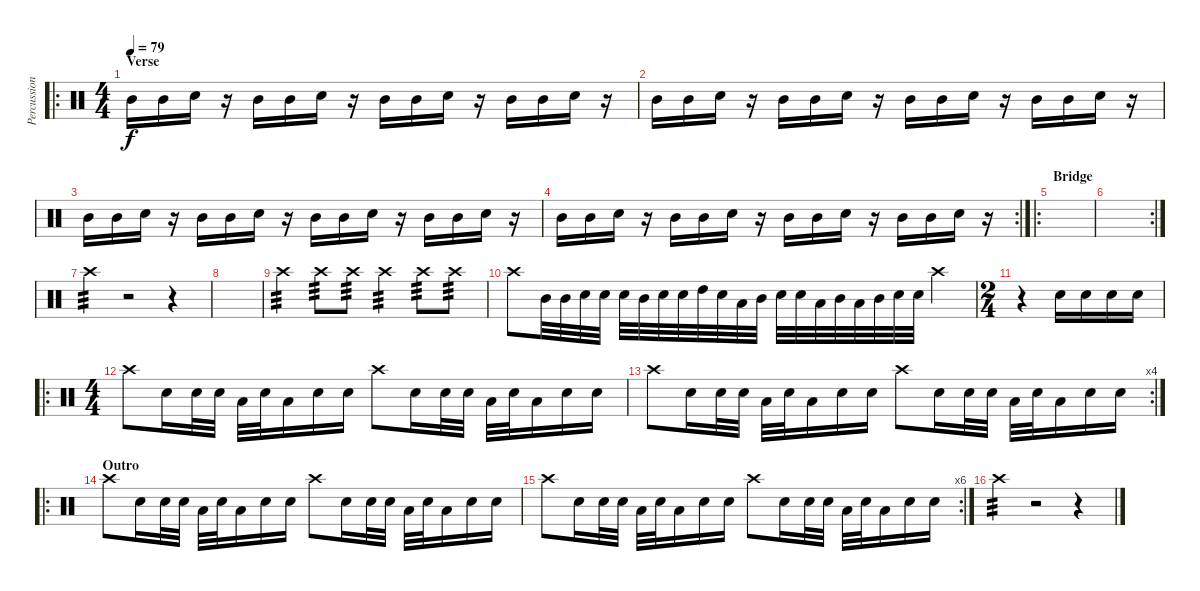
\track ("Percussion" "Percussion") {instrument percussion}
\staff {score}
\articulation defaults
\ro
\ts (4 4)
\section ("" "Verse")
\tempo 79
\clef neutral
\ks c "Mid Tom (hit)".16{dy f} "Mid Tom (hit)".16 "Snare (hit) 2".16
r.16 "Mid Tom (hit)".16 "Mid Tom (hit)".16 "Snare (hit) 2".16 r.16 "Mid Tom (hit)".16 "Mid Tom (hit)".16 "Snare (hit) 2".16 r.16 "Mid Tom (hit)".16 "Mid Tom (hit)".16 "Snare (hit) 2".16 r.16 |
"Mid Tom (hit)".16 "Mid Tom (hit)".16 "Snare (hit) 2".16 r.16 "Mid Tom (hit)".16 "Mid Tom (hit)".16 "Snare (hit) 2".16 r.16 "Mid Tom (hit)".16 "Mid Tom (hit)".16 "Snare (hit) 2".16 r.16 "Mid Tom (hit)".16 "Mid Tom (hit)".16 "Snare (hit) 2".16 r.16 |
"Mid Tom (hit)".16 "Mid Tom (hit)".16 "Snare (hit) 2".16 r.16 "Mid Tom (hit)".16 "Mid Tom (hit)".16 "Snare (hit) 2".16 r.16 "Mid Tom (hit)".16 "Mid Tom (hit)".16 "Snare (hit) 2".16 r.16 "Mid Tom (hit)".16 "Mid Tom (hit)".16 "Snare (hit) 2".16 r.16 |
\rc 2 "Mid Tom (hit)".16 "Mid Tom (hit)".16 "Snare (hit) 2".16
r.16 "Mid Tom (hit)".16 "Mid Tom (hit)".16 "Snare (hit) 2".16 r.16 "Mid Tom (hit)".16 "Mid Tom (hit)".16 "Snare (hit) 2".16 r.16 "Mid Tom (hit)".16 "Mid Tom (hit)".16 "Snare (hit) 2".16 r.16 |
\ro
\section ("" "Bridge")
|
\rc 2
|
"Crash high (hit)".4{tp 3} r.2 r.4 |
|
"Crash high (hit)".4{tp 3} "Crash high (hit)".8{tp 3} "Crash high (hit)".8{tp 3} "Crash high (hit)".4{tp 3} "Crash high (hit)".8{tp 3} "Crash high (hit)".8{tp 3} |
"Crash high (hit)".8 "Mid Tom (hit)".32 "Mid Tom (hit)".32 "Electric Snare (hit)".32 "Snare (hit) 2".32 "Electric Snare (hit)".32 "Mid Tom (hit)".32 "Snare (hit) 2".32 "Electric Snare (hit)".32 "High Tom (hit)".32 "Snare (hit) 2".32 "Low Tom (hit)".32 "Mid Tom (hit)".32 "Snare (hit) 2".32 "Electric Snare (hit)".32 "Low Floor Tom (hit)".32 "Mid Tom (hit)".32 "Low Tom (hit)".32 "Mid Tom (hit)".32 "Snare (hit) 2".32 "Electric Snare (hit)".32 "Crash high (hit)".4 |
\ts (2 4)
r.4 "Snare (hit) 2".16 "Snare (hit) 2".16 "Snare (hit) 2".16 "Snare (hit) 2".16 |
\ro
\ts (4 4)
"Crash high (hit)".8 "Snare (hit) 2".16 "Snare (hit) 2".32 "Snare (hit) 2".32 "Low Floor Tom (hit)".32 "Snare (hit) 2".32 "Low Floor Tom (hit)".16 "Snare (hit) 2".16 "Electric Snare (hit)".16 "Crash high (hit)".8 "Snare (hit) 2".16 "Snare (hit) 2".32 "Snare (hit) 2".32 "Low Floor Tom (hit)".32 "Snare (hit) 2".32 "Low Floor Tom (hit)".16 "Snare (hit) 2".16 "Electric Snare (hit)".16 |
\rc 4 "Crash high (hit)".8 "Snare (hit) 2".16 "Snare (hit) 2".32 "Snare (hit) 2".32 "Low Floor Tom (hit)".32 "Snare (hit) 2".32 "Low Floor Tom (hit)".16 "Snare (hit) 2".16 "Electric Snare (hit)".16 "Crash high (hit)".8 "Snare (hit) 2".16 "Snare (hit) 2".32 "Snare (hit) 2".32 "Low Floor Tom (hit)".32 "Snare (hit) 2".32 "Low Floor Tom (hit)".16 "Snare (hit) 2".16 "Electric Snare (hit)".16
|
\ro
\section ("" "Outro")
"Crash high (hit)".8 "Snare (hit) 2".16 "Snare (hit) 2".32 "Snare (hit) 2".32 "Low Floor Tom (hit)".32 "Snare (hit) 2".32 "Low Floor Tom (hit)".16 "Snare (hit) 2".16 "Electric Snare (hit)".16 "Crash high (hit)".8 "Snare (hit) 2".16 "Snare (hit) 2".32 "Snare (hit) 2".32 "Low Floor Tom (hit)".32 "Snare (hit) 2".32 "Low Floor Tom (hit)".16 "Snare (hit) 2".16 "Electric Snare (hit)".16 |
\rc 6 "Crash high (hit)".8 "Snare (hit) 2".16 "Snare (hit) 2".32 "Snare (hit) 2".32 "Low Floor Tom (hit)".32 "Snare (hit) 2".32 "Low Floor Tom (hit)".16 "Snare (hit) 2".16 "Electric Snare (hit)".16 "Crash high (hit)".8 "Snare (hit) 2".16 "Snare (hit) 2".32 "Snare (hit) 2".32 "Low Floor Tom (hit)".32 "Snare (hit) 2".32 "Low Floor Tom (hit)".16 "Snare (hit) 2".16 "Electric Snare (hit)".16
|
"Crash high (hit)".4{tp 3} r.2 r.4
